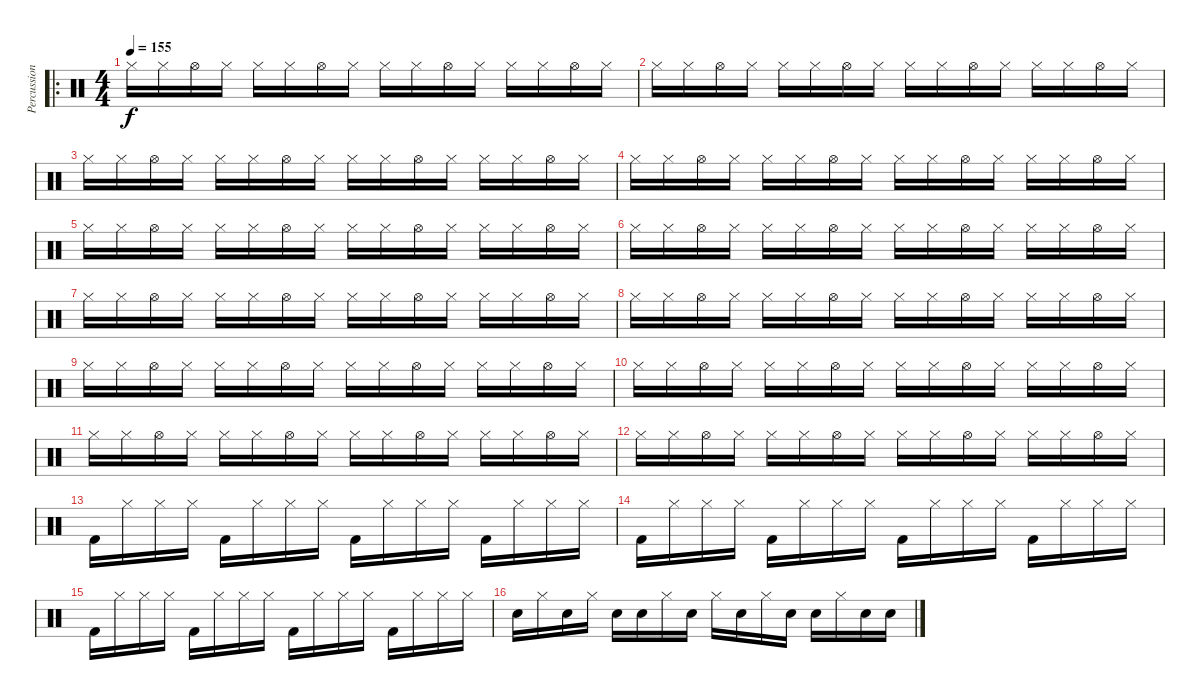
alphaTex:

\track ("Percussion" "Percussion") {instrument percussion}
\staff {score}
\articulation defaults
\ro
\ts (4 4)
\tempo 155
\clef neutral
\ks c "Hi-Hat (closed)".16{dy f} "Hi-Hat (closed)".16 "Hi-Hat (open)".16 "Hi-Hat (closed)".16 "Hi-Hat (closed)".16 "Hi-Hat (closed)".16 "Hi-Hat (open)".16 "Hi-Hat (closed)".16 "Hi-Hat (closed)".16 "Hi-Hat (closed)".16 "Hi-Hat (open)".16 "Hi-Hat (closed)".16 "Hi-Hat (closed)".16 "Hi-Hat (closed)".16 "Hi-Hat (open)".16 "Hi-Hat (closed)".16
|
"Hi-Hat (closed)".16 "Hi-Hat (closed)".16 "Hi-Hat (open)".16 "Hi-Hat (closed)".16 "Hi-Hat (closed)".16 "Hi-Hat (closed)".16 "Hi-Hat (open)".16 "Hi-Hat (closed)".16 "Hi-Hat (closed)".16 "Hi-Hat (closed)".16 "Hi-Hat (open)".16 "Hi-Hat (closed)".16 "Hi-Hat (closed)".16 "Hi-Hat (closed)".16 "Hi-Hat (open)".16 "Hi-Hat (closed)".16 |
"Hi-Hat (closed)".16 "Hi-Hat (closed)".16 "Hi-Hat (open)".16 "Hi-Hat (closed)".16 "Hi-Hat (closed)".16 "Hi-Hat (closed)".16 "Hi-Hat (open)".16 "Hi-Hat (closed)".16 "Hi-Hat (closed)".16 "Hi-Hat (closed)".16 "Hi-Hat (open)".16 "Hi-Hat (closed)".16 "Hi-Hat (closed)".16 "Hi-Hat (closed)".16 "Hi-Hat (open)".16 "Hi-Hat (closed)".16 |
"Hi-Hat (closed)".16 "Hi-Hat (closed)".16 "Hi-Hat (open)".16 "Hi-Hat (closed)".16 "Hi-Hat (closed)".16 "Hi-Hat (closed)".16 "Hi-Hat (open)".16 "Hi-Hat (closed)".16 "Hi-Hat (closed)".16 "Hi-Hat (closed)".16 "Hi-Hat (open)".16 "Hi-Hat (closed)".16 "Hi-Hat (closed)".16 "Hi-Hat (closed)".16 "Hi-Hat (open)".16 "Hi-Hat (closed)".16 |
"Hi-Hat (closed)".16 "Hi-Hat (closed)".16 "Hi-Hat (open)".16 "Hi-Hat (closed)".16 "Hi-Hat (closed)".16 "Hi-Hat (closed)".16 "Hi-Hat (open)".16 "Hi-Hat (closed)".16 "Hi-Hat (closed)".16 "Hi-Hat (closed)".16 "Hi-Hat (open)".16 "Hi-Hat (closed)".16 "Hi-Hat (closed)".16 "Hi-Hat (closed)".16 "Hi-Hat (open)".16 "Hi-Hat (closed)".16 |
"Hi-Hat (closed)".16 "Hi-Hat (closed)".16 "Hi-Hat (open)".16 "Hi-Hat (closed)".16 "Hi-Hat (closed)".16 "Hi-Hat (closed)".16 "Hi-Hat (open)".16 "Hi-Hat (closed)".16 "Hi-Hat (closed)".16 "Hi-Hat (closed)".16 "Hi-Hat (open)".16 "Hi-Hat (closed)".16 "Hi-Hat (closed)".16 "Hi-Hat (closed)".16 "Hi-Hat (open)".16 "Hi-Hat (closed)".16 |
"Hi-Hat (closed)".16 "Hi-Hat (closed)".16 "Hi-Hat (open)".16 "Hi-Hat (closed)".16 "Hi-Hat (closed)".16 "Hi-Hat (closed)".16 "Hi-Hat (open)".16 "Hi-Hat (closed)".16 "Hi-Hat (closed)".16 "Hi-Hat (closed)".16 "Hi-Hat (open)".16 "Hi-Hat (closed)".16 "Hi-Hat (closed)".16 "Hi-Hat (closed)".16 "Hi-Hat (open)".16 "Hi-Hat (closed)".16 |
"Hi-Hat (closed)".16 "Hi-Hat (closed)".16 "Hi-Hat (open)".16 "Hi-Hat (closed)".16 "Hi-Hat (closed)".16 "Hi-Hat (closed)".16 "Hi-Hat (open)".16 "Hi-Hat (closed)".16 "Hi-Hat (closed)".16 "Hi-Hat (closed)".16 "Hi-Hat (open)".16 "Hi-Hat (closed)".16 "Hi-Hat (closed)".16 "Hi-Hat (closed)".16 "Hi-Hat (open)".16 "Hi-Hat (closed)".16 |
"Hi-Hat (closed)".16 "Hi-Hat (closed)".16 "Hi-Hat (open)".16 "Hi-Hat (closed)".16 "Hi-Hat (closed)".16 "Hi-Hat (closed)".16 "Hi-Hat (open)".16 "Hi-Hat (closed)".16 "Hi-Hat (closed)".16 "Hi-Hat (closed)".16 "Hi-Hat (open)".16 "Hi-Hat (closed)".16 "Hi-Hat (closed)".16 "Hi-Hat (closed)".16 "Hi-Hat (open)".16 "Hi-Hat (closed)".16 |
"Hi-Hat (closed)".16 "Hi-Hat (closed)".16 "Hi-Hat (open)".16 "Hi-Hat (closed)".16 "Hi-Hat (closed)".16 "Hi-Hat (closed)".16 "Hi-Hat (open)".16 "Hi-Hat (closed)".16 "Hi-Hat (closed)".16 "Hi-Hat (closed)".16 "Hi-Hat (open)".16 "Hi-Hat (closed)".16 "Hi-Hat (closed)".16 "Hi-Hat (closed)".16 "Hi-Hat (open)".16 "Hi-Hat (closed)".16 |
"Hi-Hat (closed)".16 "Hi-Hat (closed)".16 "Hi-Hat (open)".16 "Hi-Hat (closed)".16 "Hi-Hat (closed)".16 "Hi-Hat (closed)".16 "Hi-Hat (open)".16 "Hi-Hat (closed)".16 "Hi-Hat (closed)".16 "Hi-Hat (closed)".16 "Hi-Hat (open)".16 "Hi-Hat (closed)".16 "Hi-Hat (closed)".16 "Hi-Hat (closed)".16 "Hi-Hat (open)".16 "Hi-Hat (closed)".16 |
"Hi-Hat (closed)".16 "Hi-Hat (closed)".16 "Hi-Hat (open)".16 "Hi-Hat (closed)".16 "Hi-Hat (closed)".16 "Hi-Hat (closed)".16 "Hi-Hat (open)".16 "Hi-Hat (closed)".16 "Hi-Hat (closed)".16 "Hi-Hat (closed)".16 "Hi-Hat (open)".16 "Hi-Hat (closed)".16 "Hi-Hat (closed)".16 "Hi-Hat (closed)".16 "Hi-Hat (open)".16 "Hi-Hat (closed)".16 |
"Kick (hit) 2".16 "Hi-Hat (closed)".16 "Hi-Hat (closed)".16 "Hi-Hat (closed)".16 "Kick (hit) 2".16 "Hi-Hat (closed)".16 "Hi-Hat (closed)".16 "Hi-Hat (closed)".16 "Kick (hit) 2".16 "Hi-Hat (closed)".16 "Hi-Hat (closed)".16 "Hi-Hat (closed)".16 "Kick (hit) 2".16 "Hi-Hat (closed)".16 "Hi-Hat (closed)".16 "Hi-Hat (closed)".16 |
"Kick (hit) 2".16 "Hi-Hat (closed)".16 "Hi-Hat (closed)".16 "Hi-Hat (closed)".16 "Kick (hit) 2".16 "Hi-Hat (closed)".16 "Hi-Hat (closed)".16 "Hi-Hat (closed)".16 "Kick (hit) 2".16 "Hi-Hat (closed)".16 "Hi-Hat (closed)".16 "Hi-Hat (closed)".16 "Kick (hit) 2".16 "Hi-Hat (closed)".16 "Hi-Hat (closed)".16 "Hi-Hat (closed)".16 |
"Kick (hit) 2".16 "Hi-Hat (closed)".16 "Hi-Hat (closed)".16 "Hi-Hat (closed)".16 "Kick (hit) 2".16 "Hi-Hat (closed)".16 "Hi-Hat (closed)".16 "Hi-Hat (closed)".16 "Kick (hit) 2".16 "Hi-Hat (closed)".16 "Hi-Hat (closed)".16 "Hi-Hat (closed)".16 "Kick (hit) 2".16 "Hi-Hat (closed)".16 "Hi-Hat (closed)".16 "Hi-Hat (closed)".16 |
"Snare (hit) 2".16 "Hi-Hat (closed)".16 "Snare (hit) 2".16 "Hi-Hat (closed)".16 "Snare (hit) 2".16 "Snare (hit) 2".16 "Hi-Hat (closed)".16 "Snare (hit) 2".16 "Hi-Hat (closed)".16 "Snare (hit) 2".16 "Hi-Hat (closed)".16 "Snare (hit) 2".16 "Snare (hit) 2".16 "Hi-Hat (closed)".16 "Snare (hit) 2".16 "Snare (hit) 2".16
